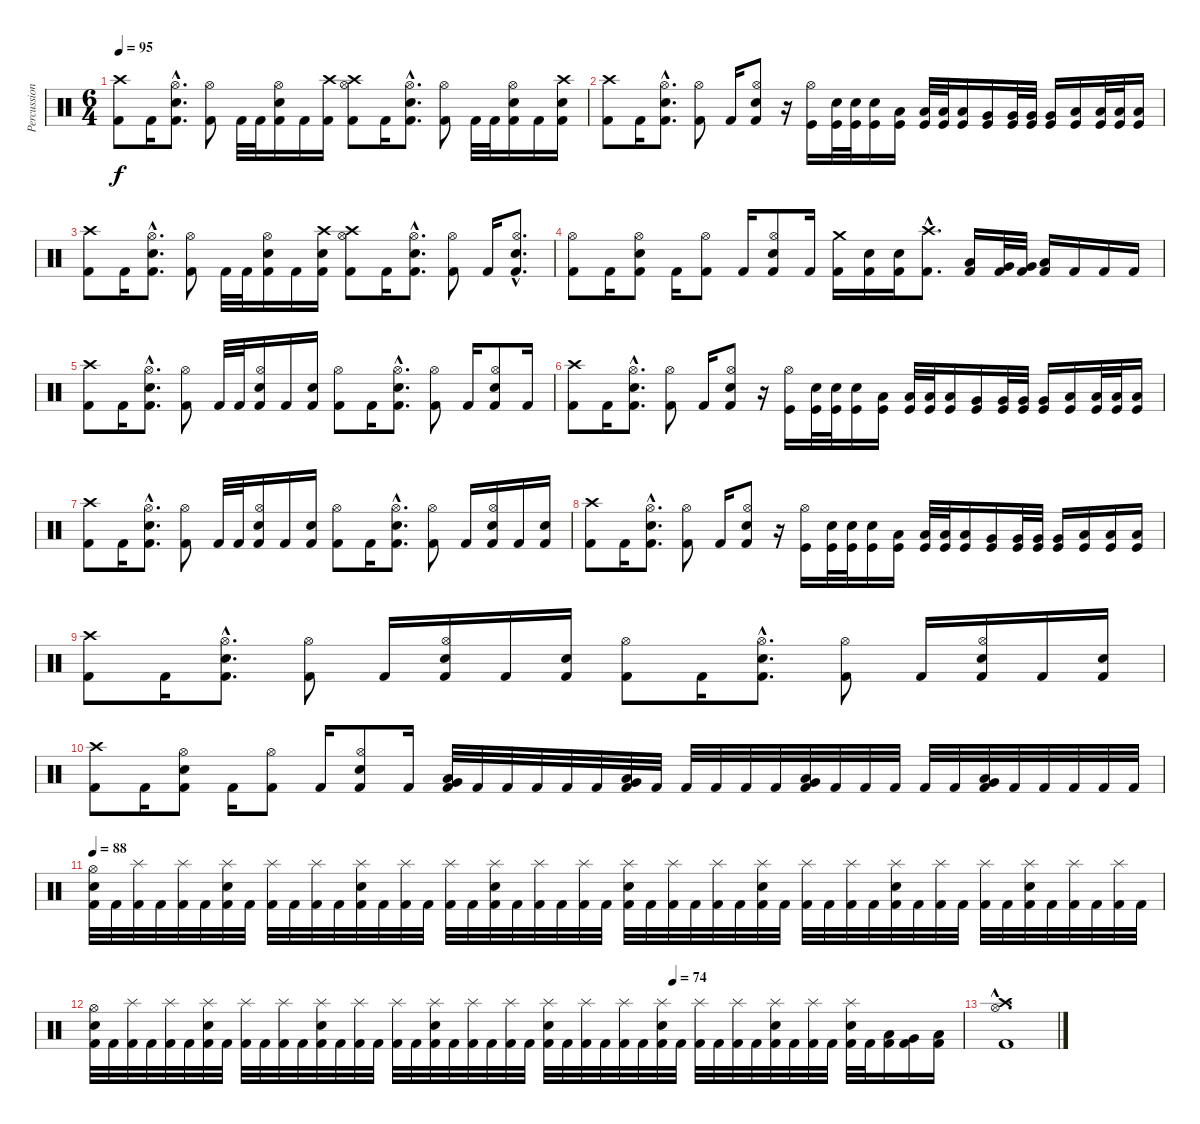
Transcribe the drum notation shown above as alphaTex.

\track ("Percussion" "Percussion") {instrument percussion}
\staff {score}
\articulation defaults
\ts (6 4)
\tempo 95
\clef neutral
\ks c
("Crash high (hit)" "Kick (hit) 2").8{dy f} "Kick (hit) 2".16 ("Hi-Hat (open)"{hac} "Snare (hit) 2"{hac} "Kick (hit) 2"{hac}).8{d} ("Hi-Hat (open)" "Kick (hit) 2").8 "Kick (hit) 2".32 "Kick (hit) 2".32 ("Hi-Hat (open)" "Snare (hit) 2" "Kick (hit) 2").16 "Kick (hit) 2".16 ("Crash high (hit)" "Kick (hit) 2").16 ("Crash high (hit)" "Hi-Hat (open)" "Kick (hit) 2").8 "Kick (hit) 2".16 ("Hi-Hat (open)"{hac} "Snare (hit) 2"{hac} "Kick (hit) 2"{hac}).8{d} ("Hi-Hat (open)" "Kick (hit) 2").8 "Kick (hit) 2".32 "Kick (hit) 2".32 ("Hi-Hat (open)" "Snare (hit) 2" "Kick (hit) 2").16 "Kick (hit) 2".16 ("Crash high (hit)" "Snare (hit) 2" "Kick (hit) 2").16 |
("Crash high (hit)" "Kick (hit) 2").8 "Kick (hit) 2".16 ("Hi-Hat (open)"{hac} "Snare (hit) 2"{hac} "Kick (hit) 2"{hac}).8{d} ("Hi-Hat (open)" "Kick (hit) 2").8 "Kick (hit) 2".16 ("Hi-Hat (open)" "Snare (hit) 2" "Kick (hit) 2").8 r.16 ("Hi-Hat (open)" "Kick (hit)").16 ("Snare (hit) 2" "Kick (hit)").32 ("Snare (hit) 2" "Kick (hit)").32 ("Snare (hit) 2" "Kick (hit)").16 ("Low Tom (hit)" "Kick (hit)").16 ("Low Tom (hit)" "Kick (hit)").32 ("Low Tom (hit)" "Kick (hit)").32 ("Low Tom (hit)" "Kick (hit)").16 ("Very Low Tom (hit)" "Kick (hit)").16 ("Very Low Tom (hit)" "Kick (hit)").32 ("Very Low Tom (hit)" "Kick (hit)").32 ("Very Low Tom (hit)" "Kick (hit)").16 ("Low Floor Tom (hit)" "Kick (hit)").16 ("Low Floor Tom (hit)" "Kick (hit)").32 ("Low Floor Tom (hit)" "Kick (hit)").32 ("Low Floor Tom (hit)" "Kick (hit)").16 |
("Crash high (hit)" "Kick (hit) 2").8 "Kick (hit) 2".16 ("Hi-Hat (open)"{hac} "Snare (hit) 2"{hac} "Kick (hit) 2"{hac}).8{d} ("Hi-Hat (open)" "Kick (hit) 2").8 "Kick (hit) 2".32 "Kick (hit) 2".32 ("Hi-Hat (open)" "Snare (hit) 2" "Kick (hit) 2").16 "Kick (hit) 2".16 ("Crash high (hit)" "Snare (hit) 2" "Kick (hit) 2").16 ("Crash high (hit)" "Hi-Hat (open)" "Kick (hit) 2").8 "Kick (hit) 2".16 ("Hi-Hat (open)"{hac} "Snare (hit) 2"{hac} "Kick (hit) 2"{hac}).8{d} ("Hi-Hat (open)" "Kick (hit) 2").8 "Kick (hit) 2".16 ("Hi-Hat (open)"{hac} "Snare (hit) 2"{hac} "Kick (hit) 2"{hac}).8{d} |
("Hi-Hat (open)" "Kick (hit) 2").8 "Kick (hit) 2".16 ("Hi-Hat (open)" "Snare (hit) 2" "Kick (hit) 2").8 "Kick (hit) 2".16 ("Hi-Hat (open)" "Kick (hit) 2").8 "Kick (hit) 2".16 ("Hi-Hat (open)" "Snare (hit) 2" "Kick (hit) 2").8 "Kick (hit) 2".16 ("Crash medium (hit)" "Kick (hit) 2").16 ("Snare (hit) 2" "Kick (hit) 2").16 ("Snare (hit) 2" "Kick (hit) 2").16 ("Crash high (hit)"{hac} "Kick (hit) 2"{hac}).8{d} ("Low Tom (hit)" "Kick (hit) 2").16 ("Very Low Tom (hit)" "Kick (hit) 2").32 ("Very Low Tom (hit)" "Kick (hit) 2").32 ("Low Floor Tom (hit)" "Kick (hit) 2").16 "Kick (hit) 2".16 "Kick (hit) 2".16 "Kick (hit) 2".16 |
("Crash high (hit)" "Kick (hit) 2").8 "Kick (hit) 2".16 ("Hi-Hat (open)"{hac} "Snare (hit) 2"{hac} "Kick (hit) 2"{hac}).8{d} ("Hi-Hat (open)" "Kick (hit) 2").8 "Kick (hit) 2".32 "Kick (hit) 2".32 ("Hi-Hat (open)" "Snare (hit) 2" "Kick (hit) 2").16 "Kick (hit) 2".16 ("Snare (hit) 2" "Kick (hit) 2").16 ("Hi-Hat (open)" "Kick (hit) 2").8 "Kick (hit) 2".16 ("Hi-Hat (open)"{hac} "Snare (hit) 2"{hac} "Kick (hit) 2"{hac}).8{d} ("Hi-Hat (open)" "Kick (hit) 2").8 "Kick (hit) 2".16 ("Hi-Hat (open)" "Snare (hit) 2" "Kick (hit) 2").8 "Kick (hit) 2".16 |
("Crash high (hit)" "Kick (hit) 2").8 "Kick (hit) 2".16 ("Hi-Hat (open)"{hac} "Snare (hit) 2"{hac} "Kick (hit) 2"{hac}).8{d} ("Hi-Hat (open)" "Kick (hit) 2").8 "Kick (hit) 2".16 ("Hi-Hat (open)" "Snare (hit) 2" "Kick (hit) 2").8 r.16 ("Hi-Hat (open)" "Kick (hit)").16 ("Snare (hit) 2" "Kick (hit)").32 ("Snare (hit) 2" "Kick (hit)").32 ("Snare (hit) 2" "Kick (hit)").16 ("Low Tom (hit)" "Kick (hit)").16 ("Low Tom (hit)" "Kick (hit)").32 ("Low Tom (hit)" "Kick (hit)").32 ("Low Tom (hit)" "Kick (hit)").16 ("Very Low Tom (hit)" "Kick (hit)").16 ("Very Low Tom (hit)" "Kick (hit)").32 ("Very Low Tom (hit)" "Kick (hit)").32 ("Very Low Tom (hit)" "Kick (hit)").16 ("Low Floor Tom (hit)" "Kick (hit)").16 ("Low Floor Tom (hit)" "Kick (hit)").32 ("Low Floor Tom (hit)" "Kick (hit)").32 ("Low Floor Tom (hit)" "Kick (hit)").16 |
("Crash high (hit)" "Kick (hit) 2").8 "Kick (hit) 2".16 ("Hi-Hat (open)"{hac} "Snare (hit) 2"{hac} "Kick (hit) 2"{hac}).8{d} ("Hi-Hat (open)" "Kick (hit) 2").8 "Kick (hit) 2".32 "Kick (hit) 2".32 ("Hi-Hat (open)" "Snare (hit) 2" "Kick (hit) 2").16 "Kick (hit) 2".16 ("Snare (hit) 2" "Kick (hit) 2").16 ("Hi-Hat (open)" "Kick (hit) 2").8 "Kick (hit) 2".16 ("Hi-Hat (open)"{hac} "Snare (hit) 2"{hac} "Kick (hit) 2"{hac}).8{d} ("Hi-Hat (open)" "Kick (hit) 2").8 "Kick (hit) 2".16 ("Hi-Hat (open)" "Snare (hit) 2" "Kick (hit) 2").16 "Kick (hit) 2".16 ("Snare (hit) 2" "Kick (hit) 2").16 |
("Crash high (hit)" "Kick (hit) 2").8 "Kick (hit) 2".16 ("Hi-Hat (open)"{hac} "Snare (hit) 2"{hac} "Kick (hit) 2"{hac}).8{d} ("Hi-Hat (open)" "Kick (hit) 2").8 "Kick (hit) 2".16 ("Hi-Hat (open)" "Snare (hit) 2" "Kick (hit) 2").8 r.16 ("Hi-Hat (open)" "Kick (hit)").16 ("Snare (hit) 2" "Kick (hit)").32 ("Snare (hit) 2" "Kick (hit)").32 ("Snare (hit) 2" "Kick (hit)").16 ("Low Tom (hit)" "Kick (hit)").16 ("Low Tom (hit)" "Kick (hit)").32 ("Low Tom (hit)" "Kick (hit)").32 ("Low Tom (hit)" "Kick (hit)").16 ("Very Low Tom (hit)" "Kick (hit)").16 ("Very Low Tom (hit)" "Kick (hit)").32 ("Very Low Tom (hit)" "Kick (hit)").32 ("Very Low Tom (hit)" "Kick (hit)").16 ("Low Floor Tom (hit)" "Kick (hit)").16 ("Low Floor Tom (hit)" "Kick (hit)").16 ("Low Floor Tom (hit)" "Kick (hit)").16 |
("Crash high (hit)" "Kick (hit) 2").8 "Kick (hit) 2".16 ("Hi-Hat (open)"{hac} "Snare (hit) 2"{hac} "Kick (hit) 2"{hac}).8{d} ("Hi-Hat (open)" "Kick (hit) 2").8 "Kick (hit) 2".16 ("Hi-Hat (open)" "Snare (hit) 2" "Kick (hit) 2").16 "Kick (hit) 2".16 ("Snare (hit) 2" "Kick (hit) 2").16 ("Hi-Hat (open)" "Kick (hit) 2").8 "Kick (hit) 2".16 ("Hi-Hat (open)"{hac} "Snare (hit) 2"{hac} "Kick (hit) 2"{hac}).8{d} ("Hi-Hat (open)" "Kick (hit) 2").8 "Kick (hit) 2".16 ("Hi-Hat (open)" "Snare (hit) 2" "Kick (hit) 2").16 "Kick (hit) 2".16 ("Snare (hit) 2" "Kick (hit) 2").16 |
("Crash high (hit)" "Kick (hit) 2").8 "Kick (hit) 2".16 ("Hi-Hat (open)" "Snare (hit) 2" "Kick (hit) 2").8 "Kick (hit) 2".16 ("Hi-Hat (open)" "Kick (hit) 2").8 "Kick (hit) 2".16 ("Hi-Hat (open)" "Snare (hit) 2" "Kick (hit) 2").8 "Kick (hit) 2".16 ("Low Tom (hit)" "Very Low Tom (hit)" "Kick (hit) 2").32 "Kick (hit) 2".32 "Kick (hit) 2".32 "Kick (hit) 2".32 "Kick (hit) 2".32 "Kick (hit) 2".32 ("Very Low Tom (hit)" "Low Tom (hit)" "Kick (hit) 2").32 "Kick (hit) 2".32 "Kick (hit) 2".32 "Kick (hit) 2".32 "Kick (hit) 2".32 "Kick (hit) 2".32 ("Very Low Tom (hit)" "Low Tom (hit)" "Kick (hit) 2").32 "Kick (hit) 2".32 "Kick (hit) 2".32 "Kick (hit) 2".32 "Kick (hit) 2".32 "Kick (hit) 2".32 ("Very Low Tom (hit)" "Low Tom (hit)" "Kick (hit) 2").32 "Kick (hit) 2".32 "Kick (hit) 2".32 "Kick (hit) 2".32 "Kick (hit) 2".32 "Kick (hit) 2".32 |
\tempo 88
("Hi-Hat (open)" "Snare (hit) 2" "Kick (hit) 2").32 "Kick (hit) 2".32 ("Splash (hit)" "Kick (hit) 2").32 "Kick (hit) 2".32 ("Splash (hit)" "Kick (hit) 2").32 "Kick (hit) 2".32 ("Splash (hit)" "Snare (hit) 2" "Kick (hit) 2").32 "Kick (hit) 2".32 ("Splash (hit)" "Kick (hit) 2").32 "Kick (hit) 2".32 ("Splash (hit)" "Kick (hit) 2").32 "Kick (hit) 2".32 ("Splash (hit)" "Snare (hit) 2" "Kick (hit) 2").32 "Kick (hit) 2".32 ("Splash (hit)" "Kick (hit) 2").32 "Kick (hit) 2".32 ("Splash (hit)" "Kick (hit) 2").32 "Kick (hit) 2".32 ("Splash (hit)" "Snare (hit) 2" "Kick (hit) 2").32 "Kick (hit) 2".32 ("Splash (hit)" "Kick (hit) 2").32 "Kick (hit) 2".32 ("Splash (hit)" "Kick (hit) 2").32 "Kick (hit) 2".32 ("Splash (hit)" "Snare (hit) 2" "Kick (hit) 2").32 "Kick (hit) 2".32 ("Splash (hit)" "Kick (hit) 2").32 "Kick (hit) 2".32 ("Splash (hit)" "Kick (hit) 2").32 "Kick (hit) 2".32 ("Splash (hit)" "Snare (hit) 2" "Kick (hit) 2").32 "Kick (hit) 2".32 ("Splash (hit)" "Kick (hit) 2").32 "Kick (hit) 2".32 ("Splash (hit)" "Kick (hit) 2").32 "Kick (hit) 2".32 ("Splash (hit)" "Snare (hit) 2" "Kick (hit) 2").32 "Kick (hit) 2".32 ("Splash (hit)" "Kick (hit) 2").32 "Kick (hit) 2".32 ("Splash (hit)" "Kick (hit) 2").32 "Kick (hit) 2".32 ("Splash (hit)" "Snare (hit) 2" "Kick (hit) 2").32 "Kick (hit) 2".32 ("Splash (hit)" "Kick (hit) 2").32 "Kick (hit) 2".32 ("Splash (hit)" "Kick (hit) 2").32 "Kick (hit) 2".32 |
\tempo (74 0.6666666666666666)
("Hi-Hat (open)" "Snare (hit) 2" "Kick (hit) 2").32 "Kick (hit) 2".32 ("Splash (hit)" "Kick (hit) 2").32 "Kick (hit) 2".32 ("Splash (hit)" "Kick (hit) 2").32 "Kick (hit) 2".32 ("Splash (hit)" "Snare (hit) 2" "Kick (hit) 2").32 "Kick (hit) 2".32 ("Splash (hit)" "Kick (hit) 2").32 "Kick (hit) 2".32 ("Splash (hit)" "Kick (hit) 2").32 "Kick (hit) 2".32 ("Splash (hit)" "Snare (hit) 2" "Kick (hit) 2").32 "Kick (hit) 2".32 ("Splash (hit)" "Kick (hit) 2").32 "Kick (hit) 2".32 ("Splash (hit)" "Kick (hit) 2").32 "Kick (hit) 2".32 ("Splash (hit)" "Snare (hit) 2" "Kick (hit) 2").32 "Kick (hit) 2".32 ("Splash (hit)" "Kick (hit) 2").32 "Kick (hit) 2".32 ("Splash (hit)" "Kick (hit) 2").32 "Kick (hit) 2".32 ("Splash (hit)" "Snare (hit) 2" "Kick (hit) 2").32 "Kick (hit) 2".32 ("Splash (hit)" "Kick (hit) 2").32 "Kick (hit) 2".32 ("Splash (hit)" "Kick (hit) 2").32 "Kick (hit) 2".32 ("Splash (hit)" "Snare (hit) 2" "Kick (hit) 2").32 "Kick (hit) 2".32 ("Splash (hit)" "Kick (hit) 2").32 "Kick (hit) 2".32 ("Splash (hit)" "Kick (hit) 2").32 "Kick (hit) 2".32 ("Splash (hit)" "Snare (hit) 2" "Kick (hit) 2").32 "Kick (hit) 2".32 ("Splash (hit)" "Kick (hit) 2").32 "Kick (hit) 2".32 ("Splash (hit)" "Snare (hit) 2" "Kick (hit) 2").32 "Kick (hit) 2".32 ("Low Tom (hit)" "Kick (hit) 2").16 ("Very Low Tom (hit)" "Kick (hit) 2").16 ("Low Floor Tom (hit)" "Kick (hit) 2").16 |
("Hi-Hat (open)"{hac} "Crash high (hit)"{hac} "Kick (hit) 2"{hac}).1{d}
